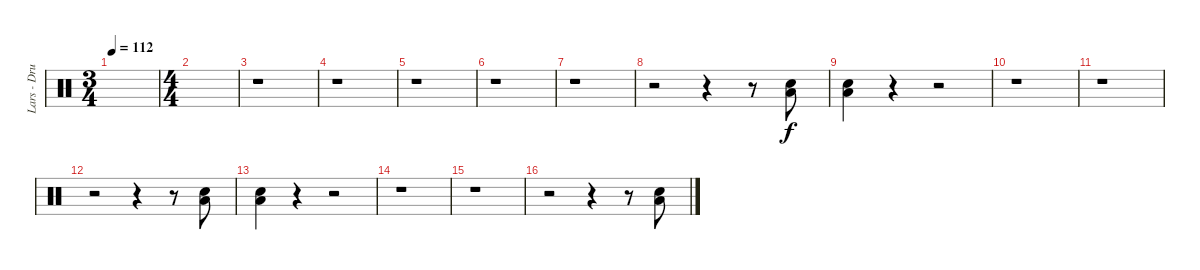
\track ("Lars - Drums" "Lars - Dru") {instrument percussion}
\staff {score}
\articulation defaults
\ts (3 4)
\tempo 112
\clef neutral
\ks c
|
\ts (4 4)
|
r.1 |
r.1 |
r.1 |
r.1 |
r.1 |
r.2 r.4 r.8 ("Low Floor Tom (hit)" "Snare (hit) 2").8 |
("Low Floor Tom (hit)" "Snare (hit) 2").4 r.4 r.2 |
r.1 |
r.1 |
r.2 r.4 r.8 ("Low Floor Tom (hit)" "Snare (hit) 2").8 |
("Low Floor Tom (hit)" "Snare (hit) 2").4 r.4 r.2 |
r.1 |
r.1 |
r.2 r.4 r.8 ("Low Floor Tom (hit)" "Snare (hit) 2").8
